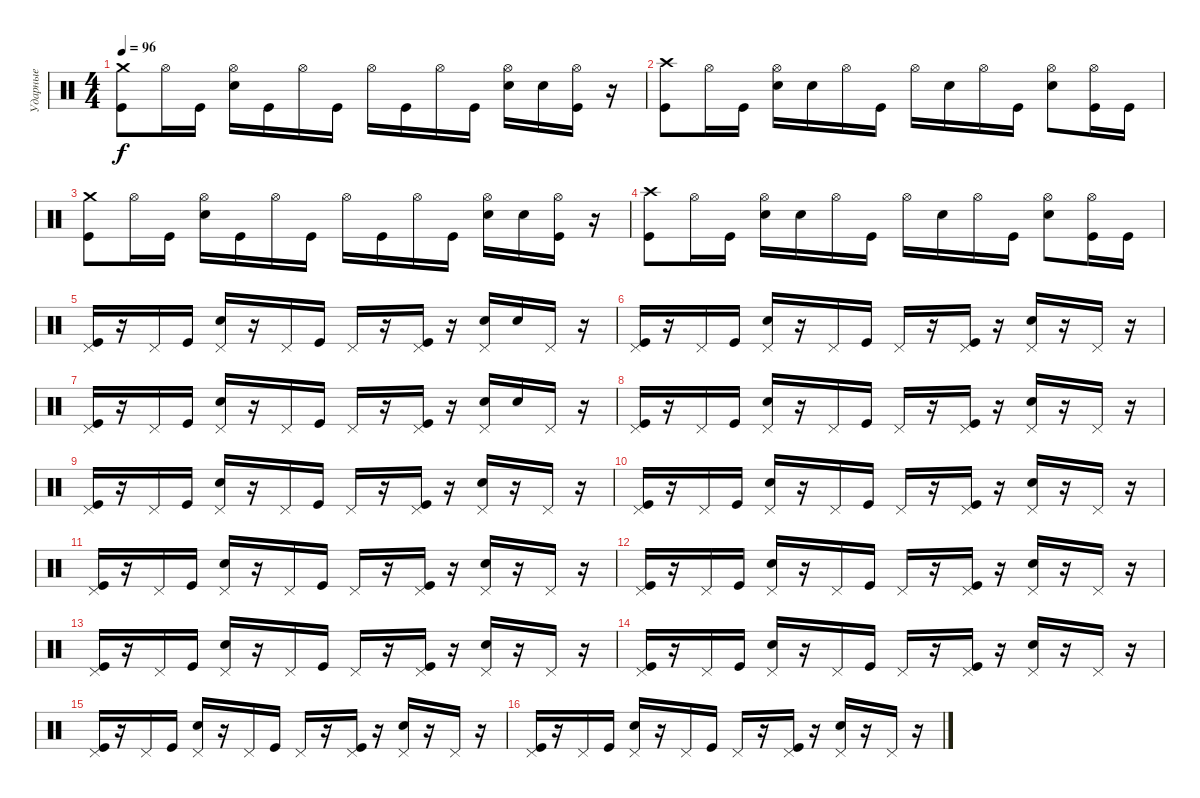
\track ("Ударные" "Ударные") {instrument percussion}
\staff {score}
\articulation defaults
\ts (4 4)
\tempo 96
\clef neutral
\ks c
("Crash medium (hit)" "Kick (hit)").8{dy f} "Hi-Hat (open)".16 "Kick (hit)".16 ("Hi-Hat (open)" "Electric Snare (hit)").16 "Kick (hit)".16 "Hi-Hat (open)".16 "Kick (hit)".16 "Hi-Hat (open)".16 "Kick (hit)".16 "Hi-Hat (open)".16 "Kick (hit)".16 ("Hi-Hat (open)" "Electric Snare (hit)").16 "Electric Snare (hit)".16 ("Hi-Hat (open)" "Kick (hit)").16 r.16 |
("Crash high (hit)" "Kick (hit)").8 "Hi-Hat (open)".16 "Kick (hit)".16 ("Hi-Hat (open)" "Electric Snare (hit)").16 "Electric Snare (hit)".16 "Hi-Hat (open)".16 "Kick (hit)".16 "Hi-Hat (open)".16 "Electric Snare (hit)".16 "Hi-Hat (open)".16 "Kick (hit)".16 ("Hi-Hat (open)" "Electric Snare (hit)").8 ("Hi-Hat (open)" "Kick (hit)").16 "Kick (hit)".16 |
("Crash medium (hit)" "Kick (hit)").8 "Hi-Hat (open)".16 "Kick (hit)".16 ("Hi-Hat (open)" "Electric Snare (hit)").16 "Kick (hit)".16 "Hi-Hat (open)".16 "Kick (hit)".16 "Hi-Hat (open)".16 "Kick (hit)".16 "Hi-Hat (open)".16 "Kick (hit)".16 ("Hi-Hat (open)" "Electric Snare (hit)").16 "Electric Snare (hit)".16 ("Hi-Hat (open)" "Kick (hit)").16 r.16 |
("Crash high (hit)" "Kick (hit)").8 "Hi-Hat (open)".16 "Kick (hit)".16 ("Hi-Hat (open)" "Electric Snare (hit)").16 "Electric Snare (hit)".16 "Hi-Hat (open)".16 "Kick (hit)".16 "Hi-Hat (open)".16 "Electric Snare (hit)".16 "Hi-Hat (open)".16 "Kick (hit)".16 ("Hi-Hat (open)" "Electric Snare (hit)").8 ("Hi-Hat (open)" "Kick (hit)").16 "Kick (hit)".16 |
("Pedal Hi-Hat (hit)" "Kick (hit)").16 r.16 "Pedal Hi-Hat (hit)".16 "Kick (hit)".16 ("Pedal Hi-Hat (hit)" "Electric Snare (hit)").16 r.16 "Pedal Hi-Hat (hit)".16 "Kick (hit)".16 "Pedal Hi-Hat (hit)".16 r.16 ("Pedal Hi-Hat (hit)" "Kick (hit)").16 r.16 ("Pedal Hi-Hat (hit)" "Electric Snare (hit)").16 "Electric Snare (hit)".16 "Pedal Hi-Hat (hit)".16 r.16 |
("Pedal Hi-Hat (hit)" "Kick (hit)").16 r.16 "Pedal Hi-Hat (hit)".16 "Kick (hit)".16 ("Pedal Hi-Hat (hit)" "Electric Snare (hit)").16 r.16 "Pedal Hi-Hat (hit)".16 "Kick (hit)".16 "Pedal Hi-Hat (hit)".16 r.16 ("Pedal Hi-Hat (hit)" "Kick (hit)").16 r.16 ("Pedal Hi-Hat (hit)" "Electric Snare (hit)").16 r.16 "Pedal Hi-Hat (hit)".16 r.16 |
("Pedal Hi-Hat (hit)" "Kick (hit)").16 r.16 "Pedal Hi-Hat (hit)".16 "Kick (hit)".16 ("Pedal Hi-Hat (hit)" "Electric Snare (hit)").16 r.16 "Pedal Hi-Hat (hit)".16 "Kick (hit)".16 "Pedal Hi-Hat (hit)".16 r.16 ("Pedal Hi-Hat (hit)" "Kick (hit)").16 r.16 ("Pedal Hi-Hat (hit)" "Electric Snare (hit)").16 "Electric Snare (hit)".16 "Pedal Hi-Hat (hit)".16 r.16 |
("Pedal Hi-Hat (hit)" "Kick (hit)").16 r.16 "Pedal Hi-Hat (hit)".16 "Kick (hit)".16 ("Pedal Hi-Hat (hit)" "Electric Snare (hit)").16 r.16 "Pedal Hi-Hat (hit)".16 "Kick (hit)".16 "Pedal Hi-Hat (hit)".16 r.16 ("Pedal Hi-Hat (hit)" "Kick (hit)").16 r.16 ("Pedal Hi-Hat (hit)" "Electric Snare (hit)").16 r.16 "Pedal Hi-Hat (hit)".16 r.16 |
("Pedal Hi-Hat (hit)" "Kick (hit)").16 r.16 "Pedal Hi-Hat (hit)".16 "Kick (hit)".16 ("Pedal Hi-Hat (hit)" "Electric Snare (hit)").16 r.16 "Pedal Hi-Hat (hit)".16 "Kick (hit)".16 "Pedal Hi-Hat (hit)".16 r.16 ("Pedal Hi-Hat (hit)" "Kick (hit)").16 r.16 ("Pedal Hi-Hat (hit)" "Electric Snare (hit)").16 r.16 "Pedal Hi-Hat (hit)".16 r.16 |
("Pedal Hi-Hat (hit)" "Kick (hit)").16 r.16 "Pedal Hi-Hat (hit)".16 "Kick (hit)".16 ("Pedal Hi-Hat (hit)" "Electric Snare (hit)").16 r.16 "Pedal Hi-Hat (hit)".16 "Kick (hit)".16 "Pedal Hi-Hat (hit)".16 r.16 ("Pedal Hi-Hat (hit)" "Kick (hit)").16 r.16 ("Pedal Hi-Hat (hit)" "Electric Snare (hit)").16 r.16 "Pedal Hi-Hat (hit)".16 r.16 |
("Pedal Hi-Hat (hit)" "Kick (hit)").16 r.16 "Pedal Hi-Hat (hit)".16 "Kick (hit)".16 ("Pedal Hi-Hat (hit)" "Electric Snare (hit)").16 r.16 "Pedal Hi-Hat (hit)".16 "Kick (hit)".16 "Pedal Hi-Hat (hit)".16 r.16 ("Pedal Hi-Hat (hit)" "Kick (hit)").16 r.16 ("Pedal Hi-Hat (hit)" "Electric Snare (hit)").16 r.16 "Pedal Hi-Hat (hit)".16 r.16 |
("Pedal Hi-Hat (hit)" "Kick (hit)").16 r.16 "Pedal Hi-Hat (hit)".16 "Kick (hit)".16 ("Pedal Hi-Hat (hit)" "Electric Snare (hit)").16 r.16 "Pedal Hi-Hat (hit)".16 "Kick (hit)".16 "Pedal Hi-Hat (hit)".16 r.16 ("Pedal Hi-Hat (hit)" "Kick (hit)").16 r.16 ("Pedal Hi-Hat (hit)" "Electric Snare (hit)").16 r.16 "Pedal Hi-Hat (hit)".16 r.16 |
("Pedal Hi-Hat (hit)" "Kick (hit)").16 r.16 "Pedal Hi-Hat (hit)".16 "Kick (hit)".16 ("Pedal Hi-Hat (hit)" "Electric Snare (hit)").16 r.16 "Pedal Hi-Hat (hit)".16 "Kick (hit)".16 "Pedal Hi-Hat (hit)".16 r.16 ("Pedal Hi-Hat (hit)" "Kick (hit)").16 r.16 ("Pedal Hi-Hat (hit)" "Electric Snare (hit)").16 r.16 "Pedal Hi-Hat (hit)".16 r.16 |
("Pedal Hi-Hat (hit)" "Kick (hit)").16 r.16 "Pedal Hi-Hat (hit)".16 "Kick (hit)".16 ("Pedal Hi-Hat (hit)" "Electric Snare (hit)").16 r.16 "Pedal Hi-Hat (hit)".16 "Kick (hit)".16 "Pedal Hi-Hat (hit)".16 r.16 ("Pedal Hi-Hat (hit)" "Kick (hit)").16 r.16 ("Pedal Hi-Hat (hit)" "Electric Snare (hit)").16 r.16 "Pedal Hi-Hat (hit)".16 r.16 |
("Pedal Hi-Hat (hit)" "Kick (hit)").16 r.16 "Pedal Hi-Hat (hit)".16 "Kick (hit)".16 ("Pedal Hi-Hat (hit)" "Electric Snare (hit)").16 r.16 "Pedal Hi-Hat (hit)".16 "Kick (hit)".16 "Pedal Hi-Hat (hit)".16 r.16 ("Pedal Hi-Hat (hit)" "Kick (hit)").16 r.16 ("Pedal Hi-Hat (hit)" "Electric Snare (hit)").16 r.16 "Pedal Hi-Hat (hit)".16 r.16 |
("Pedal Hi-Hat (hit)" "Kick (hit)").16 r.16 "Pedal Hi-Hat (hit)".16 "Kick (hit)".16 ("Pedal Hi-Hat (hit)" "Electric Snare (hit)").16 r.16 "Pedal Hi-Hat (hit)".16 "Kick (hit)".16 "Pedal Hi-Hat (hit)".16 r.16 ("Pedal Hi-Hat (hit)" "Kick (hit)").16 r.16 ("Pedal Hi-Hat (hit)" "Electric Snare (hit)").16 r.16 "Pedal Hi-Hat (hit)".16 r.16
